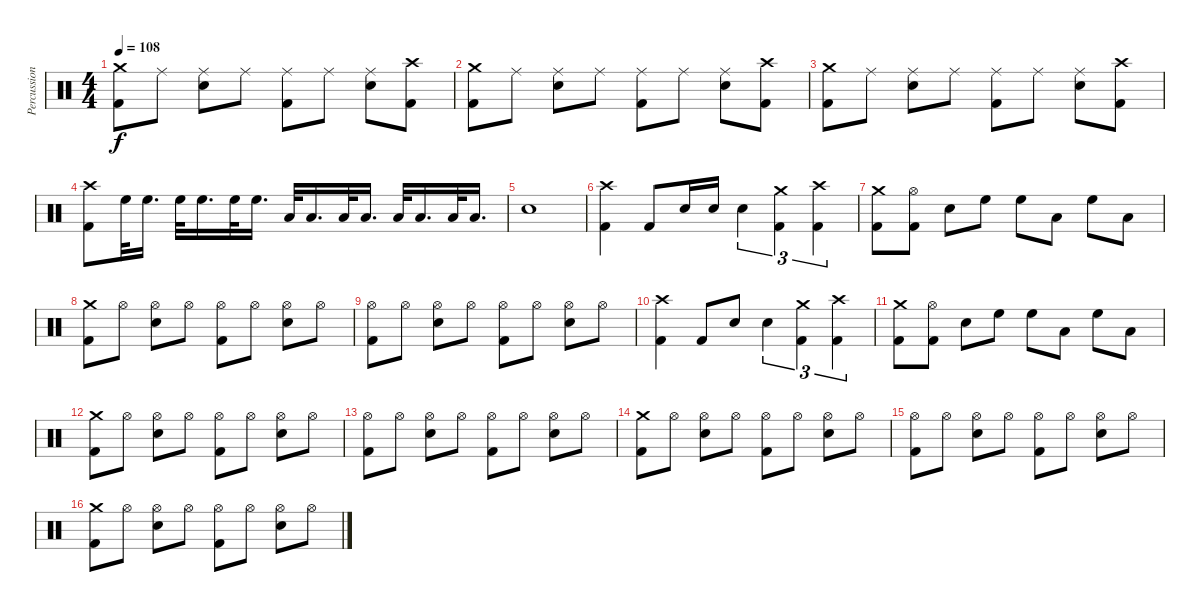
\track ("Percussion" "Percussion") {instrument percussion}
\staff {score}
\articulation defaults
\ts (4 4)
\tempo 108
\clef neutral
\ks c
("Crash medium (hit)" "Kick (hit) 2").8{dy f} "Ride (middle)".8 ("Ride (middle)" "Snare (hit) 2").8 "Ride (middle)".8 ("Ride (middle)" "Kick (hit) 2").8 "Ride (middle)".8 ("Ride (middle)" "Snare (hit) 2").8 ("Crash high (hit)" "Kick (hit) 2").8 |
("Crash medium (hit)" "Kick (hit) 2").8 "Ride (middle)".8 ("Ride (middle)" "Snare (hit) 2").8 "Ride (middle)".8 ("Ride (middle)" "Kick (hit) 2").8 "Ride (middle)".8 ("Ride (middle)" "Snare (hit) 2").8 ("Crash high (hit)" "Kick (hit) 2").8 |
("Crash medium (hit)" "Kick (hit) 2").8 "Ride (middle)".8 ("Ride (middle)" "Snare (hit) 2").8 "Ride (middle)".8 ("Ride (middle)" "Kick (hit) 2").8 "Ride (middle)".8 ("Ride (middle)" "Snare (hit) 2").8 ("Crash high (hit)" "Kick (hit) 2").8 |
("Crash high (hit)" "Kick (hit) 2").8 "High Floor Tom (hit)".32 "High Floor Tom (hit)".16{d} "High Floor Tom (hit)".32 "High Floor Tom (hit)".16{d} "High Floor Tom (hit)".32 "High Floor Tom (hit)".16{d} "Low Tom (hit)".32 "Low Tom (hit)".16{d} "Low Tom (hit)".32 "Low Tom (hit)".16{d} "Low Tom (hit)".32 "Low Tom (hit)".16{d} "Low Tom (hit)".32 "Low Tom (hit)".16{d} |
"Snare (hit) 2".1 |
("Crash high (hit)" "Kick (hit) 2").4 "Kick (hit) 2".8 "Snare (hit) 2".16 "Snare (hit) 2".16 "Snare (hit) 2".4{tu (3 2)} ("Kick (hit) 2" "Crash medium (hit)").4{tu (3 2)} ("Kick (hit) 2" "Crash high (hit)").4{tu (3 2)} |
("Kick (hit) 2" "Crash medium (hit)").8 ("Hi-Hat (open)" "Kick (hit) 2").8 "Snare (hit) 2".8 "High Floor Tom (hit)".8 "High Floor Tom (hit)".8 "Low Tom (hit)".8 "High Floor Tom (hit)".8 "Low Tom (hit)".8 |
("Crash medium (hit)" "Kick (hit) 2").8 "Hi-Hat (open)".8 ("Hi-Hat (open)" "Snare (hit) 2").8 "Hi-Hat (open)".8 ("Hi-Hat (open)" "Kick (hit) 2").8 "Hi-Hat (open)".8 ("Hi-Hat (open)" "Snare (hit) 2").8 "Hi-Hat (open)".8 |
("Hi-Hat (open)" "Kick (hit) 2").8 "Hi-Hat (open)".8 ("Hi-Hat (open)" "Snare (hit) 2").8 "Hi-Hat (open)".8 ("Hi-Hat (open)" "Kick (hit) 2").8 "Hi-Hat (open)".8 ("Hi-Hat (open)" "Snare (hit) 2").8 "Hi-Hat (open)".8 |
("Crash high (hit)" "Kick (hit) 2").4 "Kick (hit) 2".8 "Snare (hit) 2".8 "Snare (hit) 2".4{tu (3 2)} ("Kick (hit) 2" "Crash medium (hit)").4{tu (3 2)} ("Kick (hit) 2" "Crash high (hit)").4{tu (3 2)} |
("Kick (hit) 2" "Crash medium (hit)").8 ("Hi-Hat (open)" "Kick (hit) 2").8 "Snare (hit) 2".8 "High Floor Tom (hit)".8 "High Floor Tom (hit)".8 "Low Tom (hit)".8 "High Floor Tom (hit)".8 "Low Tom (hit)".8 |
("Crash medium (hit)" "Kick (hit) 2").8 "Hi-Hat (open)".8 ("Hi-Hat (open)" "Snare (hit) 2").8 "Hi-Hat (open)".8 ("Hi-Hat (open)" "Kick (hit) 2").8 "Hi-Hat (open)".8 ("Hi-Hat (open)" "Snare (hit) 2").8 "Hi-Hat (open)".8 |
("Hi-Hat (open)" "Kick (hit) 2").8 "Hi-Hat (open)".8 ("Hi-Hat (open)" "Snare (hit) 2").8 "Hi-Hat (open)".8 ("Hi-Hat (open)" "Kick (hit) 2").8 "Hi-Hat (open)".8 ("Hi-Hat (open)" "Snare (hit) 2").8 "Hi-Hat (open)".8 |
("Crash medium (hit)" "Kick (hit) 2").8 "Hi-Hat (open)".8 ("Hi-Hat (open)" "Snare (hit) 2").8 "Hi-Hat (open)".8 ("Hi-Hat (open)" "Kick (hit) 2").8 "Hi-Hat (open)".8 ("Hi-Hat (open)" "Snare (hit) 2").8 "Hi-Hat (open)".8 |
("Hi-Hat (open)" "Kick (hit) 2").8 "Hi-Hat (open)".8 ("Hi-Hat (open)" "Snare (hit) 2").8 "Hi-Hat (open)".8 ("Hi-Hat (open)" "Kick (hit) 2").8 "Hi-Hat (open)".8 ("Hi-Hat (open)" "Snare (hit) 2").8 "Hi-Hat (open)".8 |
("Crash medium (hit)" "Kick (hit) 2").8 "Hi-Hat (open)".8 ("Hi-Hat (open)" "Snare (hit) 2").8 "Hi-Hat (open)".8 ("Hi-Hat (open)" "Kick (hit) 2").8 "Hi-Hat (open)".8 ("Hi-Hat (open)" "Snare (hit) 2").8 "Hi-Hat (open)".8
